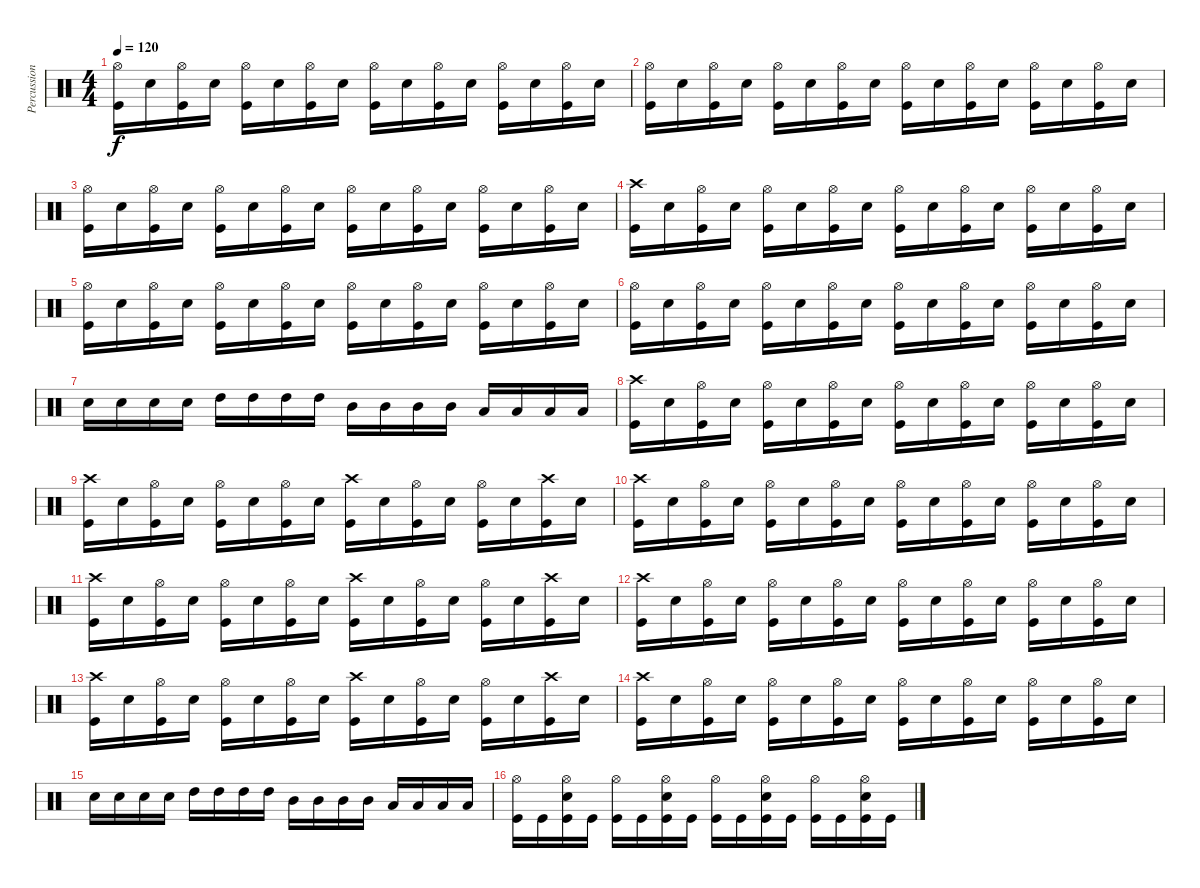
\track ("Percussioni" "Percussion") {instrument percussion}
\staff {score}
\articulation defaults
\ts (4 4)
\tempo 120
\clef neutral
\ks c
("Hi-Hat (open)" "Kick (hit)").16{dy f} "Electric Snare (hit)".16 ("Hi-Hat (open)" "Kick (hit)").16 "Electric Snare (hit)".16 ("Hi-Hat (open)" "Kick (hit)").16 "Electric Snare (hit)".16 ("Hi-Hat (open)" "Kick (hit)").16 "Electric Snare (hit)".16 ("Hi-Hat (open)" "Kick (hit)").16 "Electric Snare (hit)".16 ("Hi-Hat (open)" "Kick (hit)").16 "Electric Snare (hit)".16 ("Hi-Hat (open)" "Kick (hit)").16 "Electric Snare (hit)".16 ("Hi-Hat (open)" "Kick (hit)").16 "Electric Snare (hit)".16 |
("Hi-Hat (open)" "Kick (hit)").16 "Electric Snare (hit)".16 ("Hi-Hat (open)" "Kick (hit)").16 "Electric Snare (hit)".16 ("Hi-Hat (open)" "Kick (hit)").16 "Electric Snare (hit)".16 ("Hi-Hat (open)" "Kick (hit)").16 "Electric Snare (hit)".16 ("Hi-Hat (open)" "Kick (hit)").16 "Electric Snare (hit)".16 ("Hi-Hat (open)" "Kick (hit)").16 "Electric Snare (hit)".16 ("Hi-Hat (open)" "Kick (hit)").16 "Electric Snare (hit)".16 ("Hi-Hat (open)" "Kick (hit)").16 "Electric Snare (hit)".16 |
("Hi-Hat (open)" "Kick (hit)").16 "Electric Snare (hit)".16 ("Hi-Hat (open)" "Kick (hit)").16 "Electric Snare (hit)".16 ("Hi-Hat (open)" "Kick (hit)").16 "Electric Snare (hit)".16 ("Hi-Hat (open)" "Kick (hit)").16 "Electric Snare (hit)".16 ("Hi-Hat (open)" "Kick (hit)").16 "Electric Snare (hit)".16 ("Hi-Hat (open)" "Kick (hit)").16 "Electric Snare (hit)".16 ("Hi-Hat (open)" "Kick (hit)").16 "Electric Snare (hit)".16 ("Hi-Hat (open)" "Kick (hit)").16 "Electric Snare (hit)".16 |
("Crash high (hit)" "Kick (hit)").16 "Electric Snare (hit)".16 ("Hi-Hat (open)" "Kick (hit)").16 "Electric Snare (hit)".16 ("Hi-Hat (open)" "Kick (hit)").16 "Electric Snare (hit)".16 ("Hi-Hat (open)" "Kick (hit)").16 "Electric Snare (hit)".16 ("Hi-Hat (open)" "Kick (hit)").16 "Electric Snare (hit)".16 ("Hi-Hat (open)" "Kick (hit)").16 "Electric Snare (hit)".16 ("Hi-Hat (open)" "Kick (hit)").16 "Electric Snare (hit)".16 ("Hi-Hat (open)" "Kick (hit)").16 "Electric Snare (hit)".16 |
("Hi-Hat (open)" "Kick (hit)").16 "Electric Snare (hit)".16 ("Hi-Hat (open)" "Kick (hit)").16 "Electric Snare (hit)".16 ("Hi-Hat (open)" "Kick (hit)").16 "Electric Snare (hit)".16 ("Hi-Hat (open)" "Kick (hit)").16 "Electric Snare (hit)".16 ("Hi-Hat (open)" "Kick (hit)").16 "Electric Snare (hit)".16 ("Hi-Hat (open)" "Kick (hit)").16 "Electric Snare (hit)".16 ("Hi-Hat (open)" "Kick (hit)").16 "Electric Snare (hit)".16 ("Hi-Hat (open)" "Kick (hit)").16 "Electric Snare (hit)".16 |
("Hi-Hat (open)" "Kick (hit)").16 "Electric Snare (hit)".16 ("Hi-Hat (open)" "Kick (hit)").16 "Electric Snare (hit)".16 ("Hi-Hat (open)" "Kick (hit)").16 "Electric Snare (hit)".16 ("Hi-Hat (open)" "Kick (hit)").16 "Electric Snare (hit)".16 ("Hi-Hat (open)" "Kick (hit)").16 "Electric Snare (hit)".16 ("Hi-Hat (open)" "Kick (hit)").16 "Electric Snare (hit)".16 ("Hi-Hat (open)" "Kick (hit)").16 "Electric Snare (hit)".16 ("Hi-Hat (open)" "Kick (hit)").16 "Electric Snare (hit)".16 |
"Electric Snare (hit)".16 "Electric Snare (hit)".16 "Electric Snare (hit)".16 "Electric Snare (hit)".16 "High Tom (hit)".16 "High Tom (hit)".16 "High Tom (hit)".16 "High Tom (hit)".16 "Mid Tom (hit)".16 "Mid Tom (hit)".16 "Mid Tom (hit)".16 "Mid Tom (hit)".16 "Low Tom (hit)".16 "Low Tom (hit)".16 "Low Tom (hit)".16 "Low Tom (hit)".16 |
("Crash high (hit)" "Kick (hit)").16 "Electric Snare (hit)".16 ("Hi-Hat (open)" "Kick (hit)").16 "Electric Snare (hit)".16 ("Hi-Hat (open)" "Kick (hit)").16 "Electric Snare (hit)".16 ("Hi-Hat (open)" "Kick (hit)").16 "Electric Snare (hit)".16 ("Hi-Hat (open)" "Kick (hit)").16 "Electric Snare (hit)".16 ("Hi-Hat (open)" "Kick (hit)").16 "Electric Snare (hit)".16 ("Hi-Hat (open)" "Kick (hit)").16 "Electric Snare (hit)".16 ("Hi-Hat (open)" "Kick (hit)").16 "Electric Snare (hit)".16 |
("Crash high (hit)" "Kick (hit)").16 "Electric Snare (hit)".16 ("Hi-Hat (open)" "Kick (hit)").16 "Electric Snare (hit)".16 ("Hi-Hat (open)" "Kick (hit)").16 "Electric Snare (hit)".16 ("Hi-Hat (open)" "Kick (hit)").16 "Electric Snare (hit)".16 ("Crash high (hit)" "Kick (hit)").16 "Electric Snare (hit)".16 ("Hi-Hat (open)" "Kick (hit)").16 "Electric Snare (hit)".16 ("Hi-Hat (open)" "Kick (hit)").16 "Electric Snare (hit)".16 ("Crash high (hit)" "Kick (hit)").16 "Electric Snare (hit)".16 |
("Crash high (hit)" "Kick (hit)").16 "Electric Snare (hit)".16 ("Hi-Hat (open)" "Kick (hit)").16 "Electric Snare (hit)".16 ("Hi-Hat (open)" "Kick (hit)").16 "Electric Snare (hit)".16 ("Hi-Hat (open)" "Kick (hit)").16 "Electric Snare (hit)".16 ("Hi-Hat (open)" "Kick (hit)").16 "Electric Snare (hit)".16 ("Hi-Hat (open)" "Kick (hit)").16 "Electric Snare (hit)".16 ("Hi-Hat (open)" "Kick (hit)").16 "Electric Snare (hit)".16 ("Hi-Hat (open)" "Kick (hit)").16 "Electric Snare (hit)".16 |
("Crash high (hit)" "Kick (hit)").16 "Electric Snare (hit)".16 ("Hi-Hat (open)" "Kick (hit)").16 "Electric Snare (hit)".16 ("Hi-Hat (open)" "Kick (hit)").16 "Electric Snare (hit)".16 ("Hi-Hat (open)" "Kick (hit)").16 "Electric Snare (hit)".16 ("Crash high (hit)" "Kick (hit)").16 "Electric Snare (hit)".16 ("Hi-Hat (open)" "Kick (hit)").16 "Electric Snare (hit)".16 ("Hi-Hat (open)" "Kick (hit)").16 "Electric Snare (hit)".16 ("Crash high (hit)" "Kick (hit)").16 "Electric Snare (hit)".16 |
("Crash high (hit)" "Kick (hit)").16 "Electric Snare (hit)".16 ("Hi-Hat (open)" "Kick (hit)").16 "Electric Snare (hit)".16 ("Hi-Hat (open)" "Kick (hit)").16 "Electric Snare (hit)".16 ("Hi-Hat (open)" "Kick (hit)").16 "Electric Snare (hit)".16 ("Hi-Hat (open)" "Kick (hit)").16 "Electric Snare (hit)".16 ("Hi-Hat (open)" "Kick (hit)").16 "Electric Snare (hit)".16 ("Hi-Hat (open)" "Kick (hit)").16 "Electric Snare (hit)".16 ("Hi-Hat (open)" "Kick (hit)").16 "Electric Snare (hit)".16 |
("Crash high (hit)" "Kick (hit)").16 "Electric Snare (hit)".16 ("Hi-Hat (open)" "Kick (hit)").16 "Electric Snare (hit)".16 ("Hi-Hat (open)" "Kick (hit)").16 "Electric Snare (hit)".16 ("Hi-Hat (open)" "Kick (hit)").16 "Electric Snare (hit)".16 ("Crash high (hit)" "Kick (hit)").16 "Electric Snare (hit)".16 ("Hi-Hat (open)" "Kick (hit)").16 "Electric Snare (hit)".16 ("Hi-Hat (open)" "Kick (hit)").16 "Electric Snare (hit)".16 ("Crash high (hit)" "Kick (hit)").16 "Electric Snare (hit)".16 |
("Crash high (hit)" "Kick (hit)").16 "Electric Snare (hit)".16 ("Hi-Hat (open)" "Kick (hit)").16 "Electric Snare (hit)".16 ("Hi-Hat (open)" "Kick (hit)").16 "Electric Snare (hit)".16 ("Hi-Hat (open)" "Kick (hit)").16 "Electric Snare (hit)".16 ("Hi-Hat (open)" "Kick (hit)").16 "Electric Snare (hit)".16 ("Hi-Hat (open)" "Kick (hit)").16 "Electric Snare (hit)".16 ("Hi-Hat (open)" "Kick (hit)").16 "Electric Snare (hit)".16 ("Hi-Hat (open)" "Kick (hit)").16 "Electric Snare (hit)".16 |
"Electric Snare (hit)".16 "Electric Snare (hit)".16 "Electric Snare (hit)".16 "Electric Snare (hit)".16 "High Tom (hit)".16 "High Tom (hit)".16 "High Tom (hit)".16 "High Tom (hit)".16 "Mid Tom (hit)".16 "Mid Tom (hit)".16 "Mid Tom (hit)".16 "Mid Tom (hit)".16 "Low Tom (hit)".16 "Low Tom (hit)".16 "Low Tom (hit)".16 "Low Tom (hit)".16 |
("Hi-Hat (open)" "Kick (hit)").16 "Kick (hit)".16 ("Hi-Hat (open)" "Electric Snare (hit)" "Kick (hit)").16 "Kick (hit)".16 ("Hi-Hat (open)" "Kick (hit)").16 "Kick (hit)".16 ("Hi-Hat (open)" "Electric Snare (hit)" "Kick (hit)").16 "Kick (hit)".16 ("Hi-Hat (open)" "Kick (hit)").16 "Kick (hit)".16 ("Hi-Hat (open)" "Electric Snare (hit)" "Kick (hit)").16 "Kick (hit)".16 ("Hi-Hat (open)" "Kick (hit)").16 "Kick (hit)".16 ("Hi-Hat (open)" "Electric Snare (hit)" "Kick (hit)").16 "Kick (hit)".16
